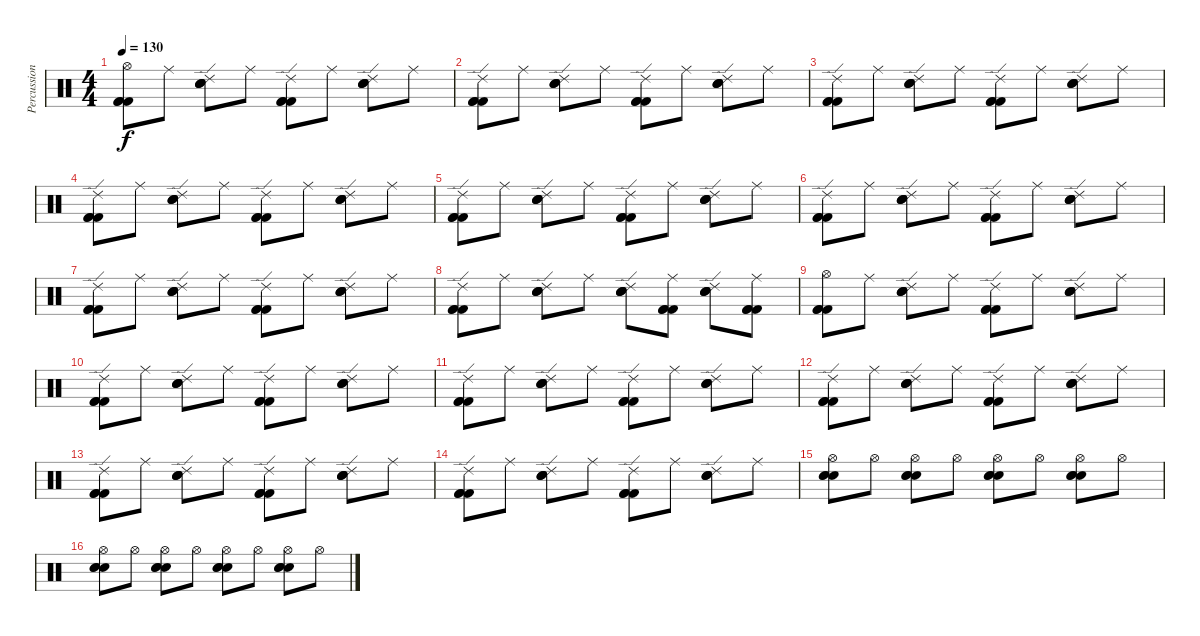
\track ("Percussion" "Percussion") {instrument percussion}
\staff {score}
\articulation defaults
\ts (4 4)
\tempo 130
\clef neutral
\ks c
("Hi-Hat (open)" "Kick (hit) 2" "Kick (hit) 2" "Kick (hit) 2").8{dy f} "Ride (middle)".8 ("Ride (edge) 2" "Electric Snare (hit)" "Electric Snare (hit)" "Electric Snare (hit)").8 "Ride (middle)".8 ("Ride (edge) 2" "Kick (hit) 2" "Kick (hit) 2" "Kick (hit) 2").8 "Ride (middle)".8 ("Ride (edge) 2" "Electric Snare (hit)" "Electric Snare (hit)" "Electric Snare (hit)").8 "Ride (middle)".8 |
("Ride (edge) 2" "Kick (hit) 2" "Kick (hit) 2" "Kick (hit) 2").8 "Ride (middle)".8 ("Ride (edge) 2" "Electric Snare (hit)" "Electric Snare (hit)" "Electric Snare (hit)").8 "Ride (middle)".8 ("Ride (edge) 2" "Kick (hit) 2" "Kick (hit) 2" "Kick (hit) 2").8 "Ride (middle)".8 ("Ride (edge) 2" "Electric Snare (hit)" "Electric Snare (hit)" "Electric Snare (hit)").8 "Ride (middle)".8 |
("Ride (edge) 2" "Kick (hit) 2" "Kick (hit) 2" "Kick (hit) 2").8 "Ride (middle)".8 ("Ride (edge) 2" "Electric Snare (hit)" "Electric Snare (hit)" "Electric Snare (hit)").8 "Ride (middle)".8 ("Ride (edge) 2" "Kick (hit) 2" "Kick (hit) 2" "Kick (hit) 2").8 "Ride (middle)".8 ("Ride (edge) 2" "Electric Snare (hit)" "Electric Snare (hit)" "Electric Snare (hit)").8 "Ride (middle)".8 |
("Ride (edge) 2" "Kick (hit) 2" "Kick (hit) 2" "Kick (hit) 2").8 "Ride (middle)".8 ("Ride (edge) 2" "Electric Snare (hit)" "Electric Snare (hit)" "Electric Snare (hit)").8 "Ride (middle)".8 ("Ride (edge) 2" "Kick (hit) 2" "Kick (hit) 2" "Kick (hit) 2").8 "Ride (middle)".8 ("Ride (edge) 2" "Electric Snare (hit)" "Electric Snare (hit)" "Electric Snare (hit)").8 "Ride (middle)".8 |
("Ride (edge) 2" "Kick (hit) 2" "Kick (hit) 2" "Kick (hit) 2").8 "Ride (middle)".8 ("Ride (edge) 2" "Electric Snare (hit)" "Electric Snare (hit)" "Electric Snare (hit)").8 "Ride (middle)".8 ("Ride (edge) 2" "Kick (hit) 2" "Kick (hit) 2" "Kick (hit) 2").8 "Ride (middle)".8 ("Ride (edge) 2" "Electric Snare (hit)" "Electric Snare (hit)" "Electric Snare (hit)").8 "Ride (middle)".8 |
("Ride (edge) 2" "Kick (hit) 2" "Kick (hit) 2" "Kick (hit) 2").8 "Ride (middle)".8 ("Ride (edge) 2" "Electric Snare (hit)" "Electric Snare (hit)" "Electric Snare (hit)").8 "Ride (middle)".8 ("Ride (edge) 2" "Kick (hit) 2" "Kick (hit) 2" "Kick (hit) 2").8 "Ride (middle)".8 ("Ride (edge) 2" "Electric Snare (hit)" "Electric Snare (hit)" "Electric Snare (hit)").8 "Ride (middle)".8 |
("Ride (edge) 2" "Kick (hit) 2" "Kick (hit) 2" "Kick (hit) 2").8 "Ride (middle)".8 ("Ride (edge) 2" "Electric Snare (hit)" "Electric Snare (hit)" "Electric Snare (hit)").8 "Ride (middle)".8 ("Ride (edge) 2" "Kick (hit) 2" "Kick (hit) 2" "Kick (hit) 2").8 "Ride (middle)".8 ("Ride (edge) 2" "Electric Snare (hit)" "Electric Snare (hit)" "Electric Snare (hit)").8 "Ride (middle)".8 |
("Ride (edge) 2" "Kick (hit) 2" "Kick (hit) 2" "Kick (hit) 2").8 "Ride (middle)".8 ("Ride (edge) 2" "Electric Snare (hit)" "Electric Snare (hit)" "Electric Snare (hit)").8 "Ride (middle)".8 ("Ride (edge) 2" "Electric Snare (hit)" "Electric Snare (hit)" "Electric Snare (hit)").8 ("Ride (middle)" "Kick (hit) 2" "Kick (hit) 2" "Kick (hit) 2").8 ("Ride (edge) 2" "Electric Snare (hit)" "Electric Snare (hit)" "Electric Snare (hit)").8 ("Ride (middle)" "Kick (hit) 2" "Kick (hit) 2" "Kick (hit) 2").8 |
("Hi-Hat (open)" "Kick (hit) 2" "Kick (hit) 2" "Kick (hit) 2").8 "Ride (middle)".8 ("Ride (edge) 2" "Electric Snare (hit)" "Electric Snare (hit)" "Electric Snare (hit)").8 "Ride (middle)".8 ("Ride (edge) 2" "Kick (hit) 2" "Kick (hit) 2" "Kick (hit) 2").8 "Ride (middle)".8 ("Ride (edge) 2" "Electric Snare (hit)" "Electric Snare (hit)" "Electric Snare (hit)").8 "Ride (middle)".8 |
("Ride (edge) 2" "Kick (hit) 2" "Kick (hit) 2" "Kick (hit) 2").8 "Ride (middle)".8 ("Ride (edge) 2" "Electric Snare (hit)" "Electric Snare (hit)" "Electric Snare (hit)").8 "Ride (middle)".8 ("Ride (edge) 2" "Kick (hit) 2" "Kick (hit) 2" "Kick (hit) 2").8 "Ride (middle)".8 ("Ride (edge) 2" "Electric Snare (hit)" "Electric Snare (hit)" "Electric Snare (hit)").8 "Ride (middle)".8 |
("Ride (edge) 2" "Kick (hit) 2" "Kick (hit) 2" "Kick (hit) 2").8 "Ride (middle)".8 ("Ride (edge) 2" "Electric Snare (hit)" "Electric Snare (hit)" "Electric Snare (hit)").8 "Ride (middle)".8 ("Ride (edge) 2" "Kick (hit) 2" "Kick (hit) 2" "Kick (hit) 2").8 "Ride (middle)".8 ("Ride (edge) 2" "Electric Snare (hit)" "Electric Snare (hit)" "Electric Snare (hit)").8 "Ride (middle)".8 |
("Ride (edge) 2" "Kick (hit) 2" "Kick (hit) 2" "Kick (hit) 2").8 "Ride (middle)".8 ("Ride (edge) 2" "Electric Snare (hit)" "Electric Snare (hit)" "Electric Snare (hit)").8 "Ride (middle)".8 ("Ride (edge) 2" "Kick (hit) 2" "Kick (hit) 2" "Kick (hit) 2").8 "Ride (middle)".8 ("Ride (edge) 2" "Electric Snare (hit)" "Electric Snare (hit)" "Electric Snare (hit)").8 "Ride (middle)".8 |
("Ride (edge) 2" "Kick (hit) 2" "Kick (hit) 2" "Kick (hit) 2").8 "Ride (middle)".8 ("Ride (edge) 2" "Electric Snare (hit)" "Electric Snare (hit)" "Electric Snare (hit)").8 "Ride (middle)".8 ("Ride (edge) 2" "Kick (hit) 2" "Kick (hit) 2" "Kick (hit) 2").8 "Ride (middle)".8 ("Ride (edge) 2" "Electric Snare (hit)" "Electric Snare (hit)" "Electric Snare (hit)").8 "Ride (middle)".8 |
("Ride (edge) 2" "Kick (hit) 2" "Kick (hit) 2" "Kick (hit) 2").8 "Ride (middle)".8 ("Ride (edge) 2" "Electric Snare (hit)" "Electric Snare (hit)" "Electric Snare (hit)").8 "Ride (middle)".8 ("Ride (edge) 2" "Kick (hit) 2" "Kick (hit) 2" "Kick (hit) 2").8 "Ride (middle)".8 ("Ride (edge) 2" "Electric Snare (hit)" "Electric Snare (hit)" "Electric Snare (hit)").8 "Ride (middle)".8 |
("Hi-Hat (open)" "Electric Snare (hit)" "Electric Snare (hit)" "Electric Snare (hit)").8 "Hi-Hat (open)".8 ("Hi-Hat (open)" "Electric Snare (hit)" "Electric Snare (hit)" "Electric Snare (hit)").8 "Hi-Hat (open)".8 ("Hi-Hat (open)" "Electric Snare (hit)" "Electric Snare (hit)" "Electric Snare (hit)").8 "Hi-Hat (open)".8 ("Hi-Hat (open)" "Electric Snare (hit)" "Electric Snare (hit)" "Electric Snare (hit)").8 "Hi-Hat (open)".8 |
("Hi-Hat (open)" "Electric Snare (hit)" "Electric Snare (hit)" "Electric Snare (hit)").8 "Hi-Hat (open)".8 ("Hi-Hat (open)" "Electric Snare (hit)" "Electric Snare (hit)" "Electric Snare (hit)").8 "Hi-Hat (open)".8 ("Hi-Hat (open)" "Electric Snare (hit)" "Electric Snare (hit)" "Electric Snare (hit)").8 "Hi-Hat (open)".8 ("Hi-Hat (open)" "Electric Snare (hit)" "Electric Snare (hit)" "Electric Snare (hit)").8 "Hi-Hat (open)".8
